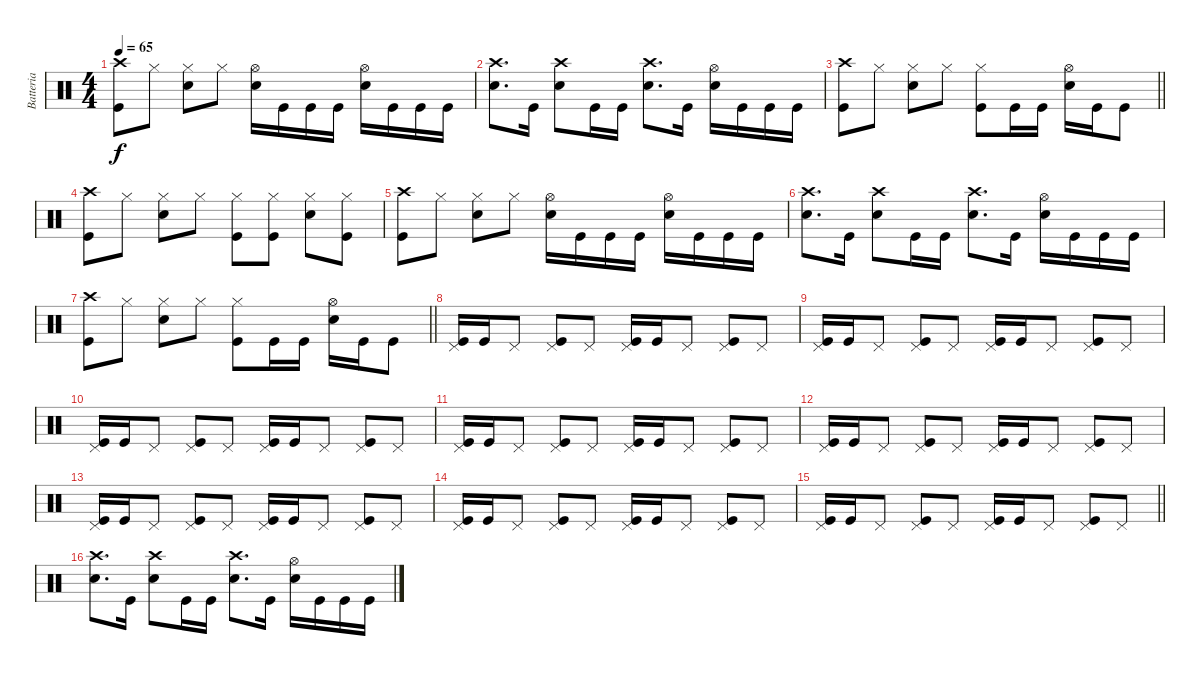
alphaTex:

\track ("Batteria" "Batteria") {instrument percussion}
\staff {score}
\articulation defaults
\ts (4 4)
\tempo 65
\clef neutral
\ks c
("Kick (hit)" "Crash high (hit)").8{dy f} "Hi-Hat (closed)".8 ("Snare (hit) 2" "Hi-Hat (closed)").8 "Hi-Hat (closed)".8 ("Snare (hit) 2" "Hi-Hat (open)").16 "Kick (hit)".16 "Kick (hit)".16 "Kick (hit)".16 ("Snare (hit) 2" "Hi-Hat (open)").16 "Kick (hit)".16 "Kick (hit)".16 "Kick (hit)".16 |
("Snare (hit) 2" "Crash high (hit)").8{d} "Kick (hit)".16 ("Snare (hit) 2" "Crash high (hit)").8 "Kick (hit)".16 "Kick (hit)".16 ("Snare (hit) 2" "Crash high (hit)").8{d} "Kick (hit)".16 ("Snare (hit) 2" "Hi-Hat (open)").16 "Kick (hit)".16 "Kick (hit)".16 "Kick (hit)".16 |
\barLineRight lightlight
("Kick (hit)" "Crash high (hit)").8 "Hi-Hat (closed)".8 ("Snare (hit) 2" "Hi-Hat (closed)").8 "Hi-Hat (closed)".8 ("Kick (hit)" "Hi-Hat (closed)").8 "Kick (hit)".16 "Kick (hit)".16 ("Snare (hit) 2" "Hi-Hat (open)").16 "Kick (hit)".16 "Kick (hit)".8 |
("Kick (hit)" "Crash high (hit)").8 "Hi-Hat (closed)".8 ("Snare (hit) 2" "Hi-Hat (closed)").8 "Hi-Hat (closed)".8 ("Kick (hit)" "Hi-Hat (closed)").8 ("Kick (hit)" "Hi-Hat (closed)").8 ("Snare (hit) 2" "Hi-Hat (closed)").8 ("Kick (hit)" "Hi-Hat (closed)").8 |
("Kick (hit)" "Crash high (hit)").8 "Hi-Hat (closed)".8 ("Snare (hit) 2" "Hi-Hat (closed)").8 "Hi-Hat (closed)".8 ("Snare (hit) 2" "Hi-Hat (open)").16 "Kick (hit)".16 "Kick (hit)".16 "Kick (hit)".16 ("Snare (hit) 2" "Hi-Hat (open)").16 "Kick (hit)".16 "Kick (hit)".16 "Kick (hit)".16 |
("Snare (hit) 2" "Crash high (hit)").8{d} "Kick (hit)".16 ("Snare (hit) 2" "Crash high (hit)").8 "Kick (hit)".16 "Kick (hit)".16 ("Snare (hit) 2" "Crash high (hit)").8{d} "Kick (hit)".16 ("Snare (hit) 2" "Hi-Hat (open)").16 "Kick (hit)".16 "Kick (hit)".16 "Kick (hit)".16 |
\barLineRight lightlight
("Kick (hit)" "Crash high (hit)").8 "Hi-Hat (closed)".8 ("Snare (hit) 2" "Hi-Hat (closed)").8 "Hi-Hat (closed)".8 ("Kick (hit)" "Hi-Hat (closed)").8 "Kick (hit)".16 "Kick (hit)".16 ("Snare (hit) 2" "Hi-Hat (open)").16 "Kick (hit)".16 "Kick (hit)".8 |
("Kick (hit)" "Pedal Hi-Hat (hit)").16 "Kick (hit)".16 "Pedal Hi-Hat (hit)".8 ("Kick (hit)" "Pedal Hi-Hat (hit)").8 "Pedal Hi-Hat (hit)".8 ("Kick (hit)" "Pedal Hi-Hat (hit)").16 "Kick (hit)".16 "Pedal Hi-Hat (hit)".8 ("Kick (hit)" "Pedal Hi-Hat (hit)").8 "Pedal Hi-Hat (hit)".8 |
("Kick (hit)" "Pedal Hi-Hat (hit)").16 "Kick (hit)".16 "Pedal Hi-Hat (hit)".8 ("Kick (hit)" "Pedal Hi-Hat (hit)").8 "Pedal Hi-Hat (hit)".8 ("Kick (hit)" "Pedal Hi-Hat (hit)").16 "Kick (hit)".16 "Pedal Hi-Hat (hit)".8 ("Kick (hit)" "Pedal Hi-Hat (hit)").8 "Pedal Hi-Hat (hit)".8 |
("Kick (hit)" "Pedal Hi-Hat (hit)").16 "Kick (hit)".16 "Pedal Hi-Hat (hit)".8 ("Kick (hit)" "Pedal Hi-Hat (hit)").8 "Pedal Hi-Hat (hit)".8 ("Kick (hit)" "Pedal Hi-Hat (hit)").16 "Kick (hit)".16 "Pedal Hi-Hat (hit)".8 ("Kick (hit)" "Pedal Hi-Hat (hit)").8 "Pedal Hi-Hat (hit)".8 |
("Kick (hit)" "Pedal Hi-Hat (hit)").16 "Kick (hit)".16 "Pedal Hi-Hat (hit)".8 ("Kick (hit)" "Pedal Hi-Hat (hit)").8 "Pedal Hi-Hat (hit)".8 ("Kick (hit)" "Pedal Hi-Hat (hit)").16 "Kick (hit)".16 "Pedal Hi-Hat (hit)".8 ("Kick (hit)" "Pedal Hi-Hat (hit)").8 "Pedal Hi-Hat (hit)".8 |
("Kick (hit)" "Pedal Hi-Hat (hit)").16 "Kick (hit)".16 "Pedal Hi-Hat (hit)".8 ("Kick (hit)" "Pedal Hi-Hat (hit)").8 "Pedal Hi-Hat (hit)".8 ("Kick (hit)" "Pedal Hi-Hat (hit)").16 "Kick (hit)".16 "Pedal Hi-Hat (hit)".8 ("Kick (hit)" "Pedal Hi-Hat (hit)").8 "Pedal Hi-Hat (hit)".8 |
("Kick (hit)" "Pedal Hi-Hat (hit)").16 "Kick (hit)".16 "Pedal Hi-Hat (hit)".8 ("Kick (hit)" "Pedal Hi-Hat (hit)").8 "Pedal Hi-Hat (hit)".8 ("Kick (hit)" "Pedal Hi-Hat (hit)").16 "Kick (hit)".16 "Pedal Hi-Hat (hit)".8 ("Kick (hit)" "Pedal Hi-Hat (hit)").8 "Pedal Hi-Hat (hit)".8 |
("Kick (hit)" "Pedal Hi-Hat (hit)").16 "Kick (hit)".16 "Pedal Hi-Hat (hit)".8 ("Kick (hit)" "Pedal Hi-Hat (hit)").8 "Pedal Hi-Hat (hit)".8 ("Kick (hit)" "Pedal Hi-Hat (hit)").16 "Kick (hit)".16 "Pedal Hi-Hat (hit)".8 ("Kick (hit)" "Pedal Hi-Hat (hit)").8 "Pedal Hi-Hat (hit)".8 |
\barLineRight lightlight
("Kick (hit)" "Pedal Hi-Hat (hit)").16 "Kick (hit)".16 "Pedal Hi-Hat (hit)".8 ("Kick (hit)" "Pedal Hi-Hat (hit)").8 "Pedal Hi-Hat (hit)".8 ("Kick (hit)" "Pedal Hi-Hat (hit)").16 "Kick (hit)".16 "Pedal Hi-Hat (hit)".8 ("Kick (hit)" "Pedal Hi-Hat (hit)").8 "Pedal Hi-Hat (hit)".8 |
("Snare (hit) 2" "Crash high (hit)").8{d} "Kick (hit)".16 ("Snare (hit) 2" "Crash high (hit)").8 "Kick (hit)".16 "Kick (hit)".16 ("Snare (hit) 2" "Crash high (hit)").8{d} "Kick (hit)".16 ("Snare (hit) 2" "Hi-Hat (open)").16 "Kick (hit)".16 "Kick (hit)".16 "Kick (hit)".16
